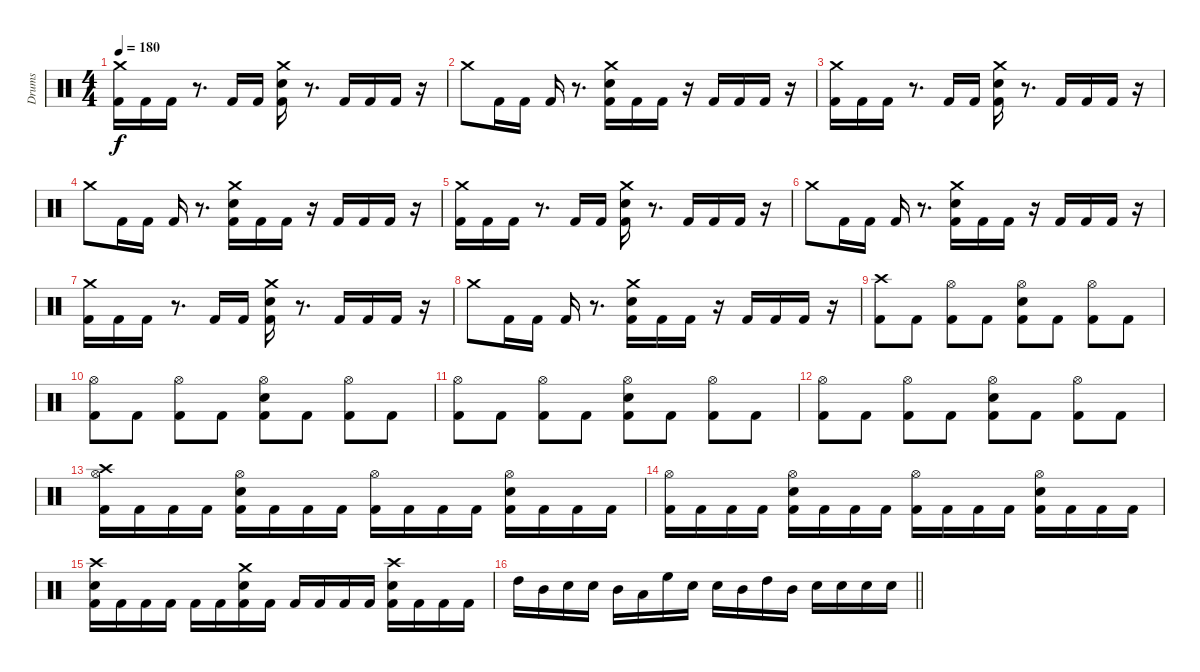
\track ("Drums" "Drums") {instrument percussion}
\staff {score}
\articulation defaults
\ts (4 4)
\tempo 180
\clef neutral
\ks c
("Crash medium (hit)" "Kick (hit) 2").16{dy f} "Kick (hit) 2".16 "Kick (hit) 2".16 r.8{d} "Kick (hit) 2".16 "Kick (hit) 2".16 ("Crash medium (hit)" "Electric Snare (hit)" "Kick (hit) 2").16 r.8{d} "Kick (hit) 2".16 "Kick (hit) 2".16 "Kick (hit) 2".16 r.16 |
"Crash medium (hit)".8 "Kick (hit) 2".16 "Kick (hit) 2".16 "Kick (hit) 2".16 r.8{d} ("Crash medium (hit)" "Electric Snare (hit)" "Kick (hit) 2").16 "Kick (hit) 2".16 "Kick (hit) 2".16 r.16 "Kick (hit) 2".16 "Kick (hit) 2".16 "Kick (hit) 2".16 r.16 |
("Crash medium (hit)" "Kick (hit) 2").16 "Kick (hit) 2".16 "Kick (hit) 2".16 r.8{d} "Kick (hit) 2".16 "Kick (hit) 2".16 ("Crash medium (hit)" "Electric Snare (hit)" "Kick (hit) 2").16 r.8{d} "Kick (hit) 2".16 "Kick (hit) 2".16 "Kick (hit) 2".16 r.16 |
"Crash medium (hit)".8 "Kick (hit) 2".16 "Kick (hit) 2".16 "Kick (hit) 2".16 r.8{d} ("Crash medium (hit)" "Electric Snare (hit)" "Kick (hit) 2").16 "Kick (hit) 2".16 "Kick (hit) 2".16 r.16 "Kick (hit) 2".16 "Kick (hit) 2".16 "Kick (hit) 2".16 r.16 |
("Crash medium (hit)" "Kick (hit) 2").16 "Kick (hit) 2".16 "Kick (hit) 2".16 r.8{d} "Kick (hit) 2".16 "Kick (hit) 2".16 ("Crash medium (hit)" "Electric Snare (hit)" "Kick (hit) 2").16 r.8{d} "Kick (hit) 2".16 "Kick (hit) 2".16 "Kick (hit) 2".16 r.16 |
"Crash medium (hit)".8 "Kick (hit) 2".16 "Kick (hit) 2".16 "Kick (hit) 2".16 r.8{d} ("Crash medium (hit)" "Electric Snare (hit)" "Kick (hit) 2").16 "Kick (hit) 2".16 "Kick (hit) 2".16 r.16 "Kick (hit) 2".16 "Kick (hit) 2".16 "Kick (hit) 2".16 r.16 |
("Crash medium (hit)" "Kick (hit) 2").16 "Kick (hit) 2".16 "Kick (hit) 2".16 r.8{d} "Kick (hit) 2".16 "Kick (hit) 2".16 ("Crash medium (hit)" "Electric Snare (hit)" "Kick (hit) 2").16 r.8{d} "Kick (hit) 2".16 "Kick (hit) 2".16 "Kick (hit) 2".16 r.16 |
"Crash medium (hit)".8 "Kick (hit) 2".16 "Kick (hit) 2".16 "Kick (hit) 2".16 r.8{d} ("Crash medium (hit)" "Electric Snare (hit)" "Kick (hit) 2").16 "Kick (hit) 2".16 "Kick (hit) 2".16 r.16 "Kick (hit) 2".16 "Kick (hit) 2".16 "Kick (hit) 2".16 r.16 |
("Crash high (hit)" "Kick (hit) 2").8 "Kick (hit) 2".8 ("Hi-Hat (open)" "Kick (hit) 2").8 "Kick (hit) 2".8 ("Hi-Hat (open)" "Electric Snare (hit)" "Kick (hit) 2").8 "Kick (hit) 2".8 ("Hi-Hat (open)" "Kick (hit) 2").8 "Kick (hit) 2".8 |
("Hi-Hat (open)" "Kick (hit) 2").8 "Kick (hit) 2".8 ("Hi-Hat (open)" "Kick (hit) 2").8 "Kick (hit) 2".8 ("Hi-Hat (open)" "Electric Snare (hit)" "Kick (hit) 2").8 "Kick (hit) 2".8 ("Hi-Hat (open)" "Kick (hit) 2").8 "Kick (hit) 2".8 |
("Hi-Hat (open)" "Kick (hit) 2").8 "Kick (hit) 2".8 ("Hi-Hat (open)" "Kick (hit) 2").8 "Kick (hit) 2".8 ("Hi-Hat (open)" "Electric Snare (hit)" "Kick (hit) 2").8 "Kick (hit) 2".8 ("Hi-Hat (open)" "Kick (hit) 2").8 "Kick (hit) 2".8 |
("Hi-Hat (open)" "Kick (hit) 2").8 "Kick (hit) 2".8 ("Hi-Hat (open)" "Kick (hit) 2").8 "Kick (hit) 2".8 ("Hi-Hat (open)" "Electric Snare (hit)" "Kick (hit) 2").8 "Kick (hit) 2".8 ("Hi-Hat (open)" "Kick (hit) 2").8 "Kick (hit) 2".8 |
("Crash high (hit)" "Hi-Hat (open)" "Kick (hit) 2").16 "Kick (hit) 2".16 "Kick (hit) 2".16 "Kick (hit) 2".16 ("Hi-Hat (open)" "Electric Snare (hit)" "Kick (hit) 2").16 "Kick (hit) 2".16 "Kick (hit) 2".16 "Kick (hit) 2".16 ("Hi-Hat (open)" "Kick (hit) 2").16 "Kick (hit) 2".16 "Kick (hit) 2".16 "Kick (hit) 2".16 ("Hi-Hat (open)" "Electric Snare (hit)" "Kick (hit) 2").16 "Kick (hit) 2".16 "Kick (hit) 2".16 "Kick (hit) 2".16 |
("Hi-Hat (open)" "Kick (hit) 2").16 "Kick (hit) 2".16 "Kick (hit) 2".16 "Kick (hit) 2".16 ("Hi-Hat (open)" "Electric Snare (hit)" "Kick (hit) 2").16 "Kick (hit) 2".16 "Kick (hit) 2".16 "Kick (hit) 2".16 ("Hi-Hat (open)" "Kick (hit) 2").16 "Kick (hit) 2".16 "Kick (hit) 2".16 "Kick (hit) 2".16 ("Hi-Hat (open)" "Electric Snare (hit)" "Kick (hit) 2").16 "Kick (hit) 2".16 "Kick (hit) 2".16 "Kick (hit) 2".16 |
("Crash high (hit)" "Electric Snare (hit)" "Kick (hit) 2").16 "Kick (hit) 2".16 "Kick (hit) 2".16 "Kick (hit) 2".16 "Kick (hit) 2".16 "Kick (hit) 2".16 ("Crash medium (hit)" "Electric Snare (hit)" "Kick (hit) 2").16 "Kick (hit) 2".16 "Kick (hit) 2".16 "Kick (hit) 2".16 "Kick (hit) 2".16 "Kick (hit) 2".16 ("Crash high (hit)" "Electric Snare (hit)" "Kick (hit) 2").16 "Kick (hit) 2".16 "Kick (hit) 2".16 "Kick (hit) 2".16 |
\barLineRight lightlight "High Tom (hit)".16 "Mid Tom (hit)".16 "Electric Snare (hit)".16 "Electric Snare (hit)".16 "Mid Tom (hit)".16 "Low Tom (hit)".16 "High Floor Tom (hit)".16 "Electric Snare (hit)".16 "Electric Snare (hit)".16 "Mid Tom (hit)".16 "High Tom (hit)".16 "Mid Tom (hit)".16 "Electric Snare (hit)".16 "Electric Snare (hit)".16 "Electric Snare (hit)".16 "Electric Snare (hit)".16
